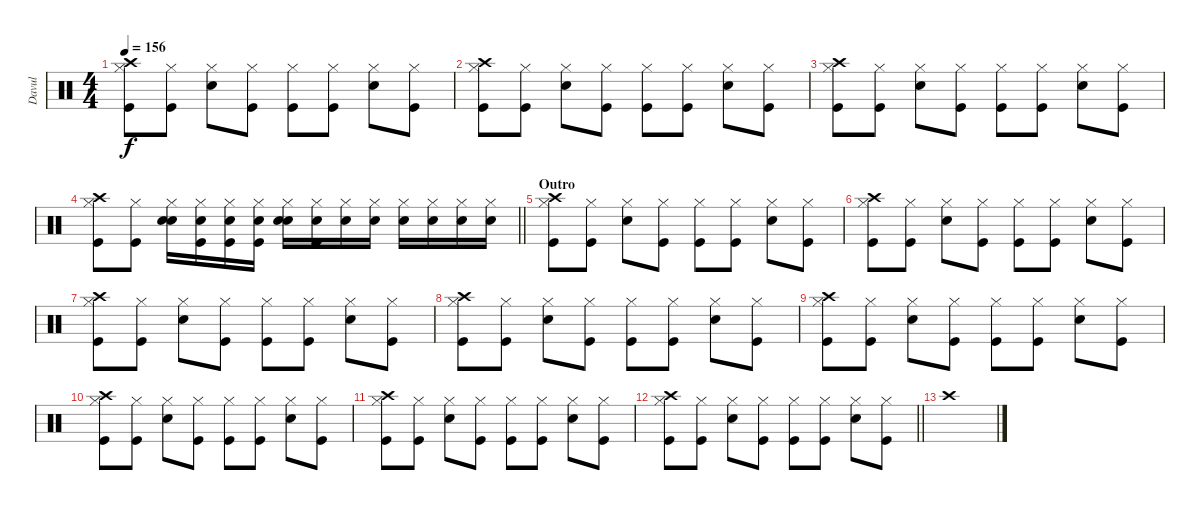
\track ("Davul" "Davul") {instrument percussion}
\staff {score}
\articulation defaults
\ts (4 4)
\tempo 156
\clef neutral
\ks c
("Hi-Hat (closed)" "Kick (hit)" "Crash high (hit)").8{dy f} ("Hi-Hat (closed)" "Kick (hit)").8 ("Hi-Hat (closed)" "Snare (hit) 2").8 ("Hi-Hat (closed)" "Kick (hit)").8 ("Hi-Hat (closed)" "Kick (hit)").8 ("Hi-Hat (closed)" "Kick (hit)").8 ("Hi-Hat (closed)" "Snare (hit) 2").8 ("Hi-Hat (closed)" "Kick (hit)").8 |
("Hi-Hat (closed)" "Kick (hit)" "Crash high (hit)").8 ("Hi-Hat (closed)" "Kick (hit)").8 ("Hi-Hat (closed)" "Snare (hit) 2").8 ("Hi-Hat (closed)" "Kick (hit)").8 ("Hi-Hat (closed)" "Kick (hit)").8 ("Hi-Hat (closed)" "Kick (hit)").8 ("Hi-Hat (closed)" "Snare (hit) 2").8 ("Hi-Hat (closed)" "Kick (hit)").8 |
("Hi-Hat (closed)" "Kick (hit)" "Crash high (hit)").8 ("Hi-Hat (closed)" "Kick (hit)").8 ("Hi-Hat (closed)" "Snare (hit) 2").8 ("Hi-Hat (closed)" "Kick (hit)").8 ("Hi-Hat (closed)" "Kick (hit)").8 ("Hi-Hat (closed)" "Kick (hit)").8 ("Hi-Hat (closed)" "Snare (hit) 2").8 ("Hi-Hat (closed)" "Kick (hit)").8 |
\barLineRight lightlight
("Hi-Hat (closed)" "Kick (hit)" "Crash high (hit)").8 ("Hi-Hat (closed)" "Kick (hit)").8 ("Hi-Hat (closed)" "Snare (hit) 2" "Snare (hit) 2").16 ("Hi-Hat (closed)" "Kick (hit)" "Snare (hit) 2").16 ("Hi-Hat (closed)" "Kick (hit)" "Snare (hit) 2").16 ("Hi-Hat (closed)" "Kick (hit)" "Snare (hit) 2").16 ("Hi-Hat (closed)" "Snare (hit) 2" "Snare (hit) 2").16 ("Hi-Hat (closed)" "Kick (hit)" "Snare (hit) 2").16 ("Hi-Hat (closed)" "Snare (hit) 2").16 ("Hi-Hat (closed)" "Snare (hit) 2").16 ("Hi-Hat (closed)" "Snare (hit) 2").16 ("Hi-Hat (closed)" "Snare (hit) 2").16 ("Hi-Hat (closed)" "Snare (hit) 2").16 ("Hi-Hat (closed)" "Snare (hit) 2").16 |
\section ("" "Outro")
("Hi-Hat (closed)" "Kick (hit)" "Crash high (hit)").8 ("Hi-Hat (closed)" "Kick (hit)").8 ("Hi-Hat (closed)" "Snare (hit) 2").8 ("Hi-Hat (closed)" "Kick (hit)").8 ("Hi-Hat (closed)" "Kick (hit)").8 ("Hi-Hat (closed)" "Kick (hit)").8 ("Hi-Hat (closed)" "Snare (hit) 2").8 ("Hi-Hat (closed)" "Kick (hit)").8 |
("Hi-Hat (closed)" "Kick (hit)" "Crash high (hit)").8 ("Hi-Hat (closed)" "Kick (hit)").8 ("Hi-Hat (closed)" "Snare (hit) 2").8 ("Hi-Hat (closed)" "Kick (hit)").8 ("Hi-Hat (closed)" "Kick (hit)").8 ("Hi-Hat (closed)" "Kick (hit)").8 ("Hi-Hat (closed)" "Snare (hit) 2").8 ("Hi-Hat (closed)" "Kick (hit)").8 |
("Hi-Hat (closed)" "Kick (hit)" "Crash high (hit)").8 ("Hi-Hat (closed)" "Kick (hit)").8 ("Hi-Hat (closed)" "Snare (hit) 2").8 ("Hi-Hat (closed)" "Kick (hit)").8 ("Hi-Hat (closed)" "Kick (hit)").8 ("Hi-Hat (closed)" "Kick (hit)").8 ("Hi-Hat (closed)" "Snare (hit) 2").8 ("Hi-Hat (closed)" "Kick (hit)").8 |
("Hi-Hat (closed)" "Kick (hit)" "Crash high (hit)").8 ("Hi-Hat (closed)" "Kick (hit)").8 ("Hi-Hat (closed)" "Snare (hit) 2").8 ("Hi-Hat (closed)" "Kick (hit)").8 ("Hi-Hat (closed)" "Kick (hit)").8 ("Hi-Hat (closed)" "Kick (hit)").8 ("Hi-Hat (closed)" "Snare (hit) 2").8 ("Hi-Hat (closed)" "Kick (hit)").8 |
("Hi-Hat (closed)" "Kick (hit)" "Crash high (hit)").8 ("Hi-Hat (closed)" "Kick (hit)").8 ("Hi-Hat (closed)" "Snare (hit) 2").8 ("Hi-Hat (closed)" "Kick (hit)").8 ("Hi-Hat (closed)" "Kick (hit)").8 ("Hi-Hat (closed)" "Kick (hit)").8 ("Hi-Hat (closed)" "Snare (hit) 2").8 ("Hi-Hat (closed)" "Kick (hit)").8 |
("Hi-Hat (closed)" "Kick (hit)" "Crash high (hit)").8 ("Hi-Hat (closed)" "Kick (hit)").8 ("Hi-Hat (closed)" "Snare (hit) 2").8 ("Hi-Hat (closed)" "Kick (hit)").8 ("Hi-Hat (closed)" "Kick (hit)").8 ("Hi-Hat (closed)" "Kick (hit)").8 ("Hi-Hat (closed)" "Snare (hit) 2").8 ("Hi-Hat (closed)" "Kick (hit)").8 |
("Hi-Hat (closed)" "Kick (hit)" "Crash high (hit)").8 ("Hi-Hat (closed)" "Kick (hit)").8 ("Hi-Hat (closed)" "Snare (hit) 2").8 ("Hi-Hat (closed)" "Kick (hit)").8 ("Hi-Hat (closed)" "Kick (hit)").8 ("Hi-Hat (closed)" "Kick (hit)").8 ("Hi-Hat (closed)" "Snare (hit) 2").8 ("Hi-Hat (closed)" "Kick (hit)").8 |
\barLineRight lightlight
("Hi-Hat (closed)" "Kick (hit)" "Crash high (hit)").8 ("Hi-Hat (closed)" "Kick (hit)").8 ("Hi-Hat (closed)" "Snare (hit) 2").8 ("Hi-Hat (closed)" "Kick (hit)").8 ("Hi-Hat (closed)" "Kick (hit)").8 ("Hi-Hat (closed)" "Kick (hit)").8 ("Hi-Hat (closed)" "Snare (hit) 2").8 ("Hi-Hat (closed)" "Kick (hit)").8 |
"Crash high (hit)".1
